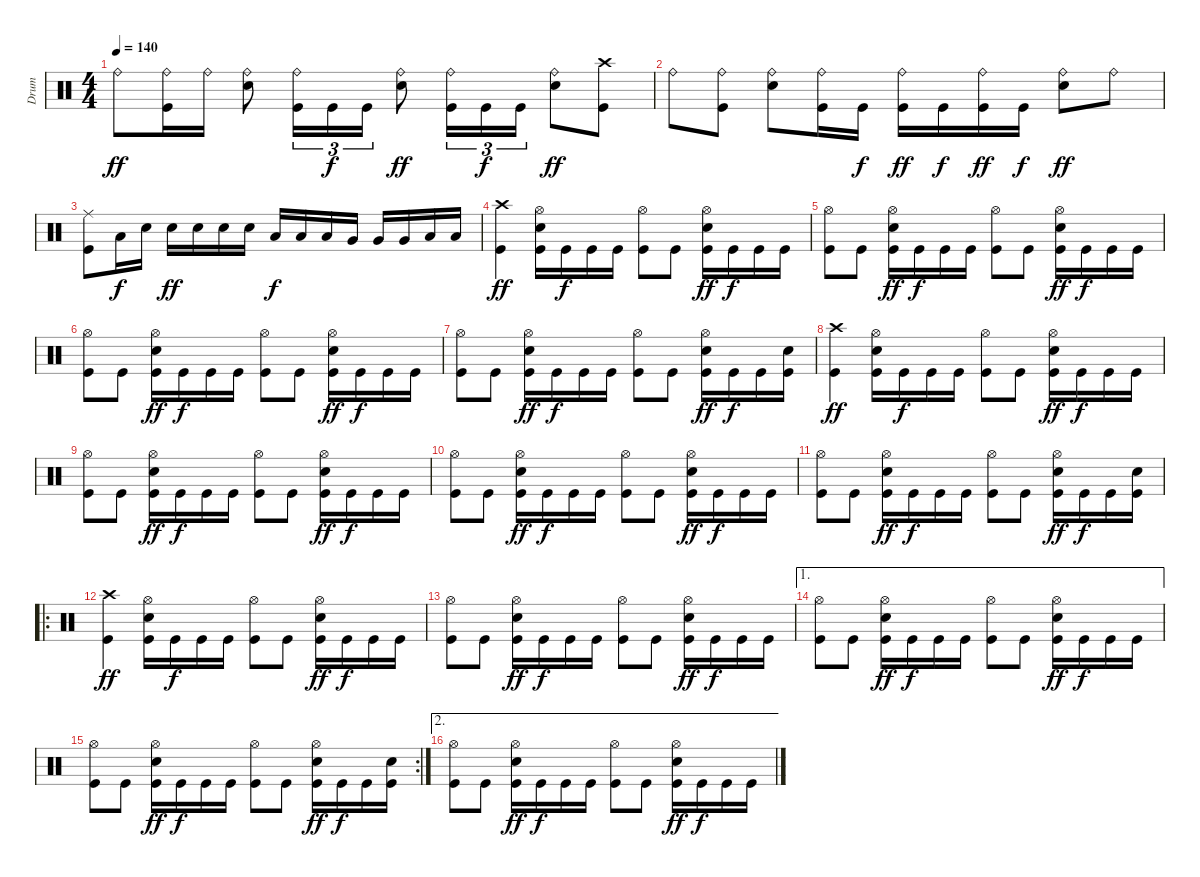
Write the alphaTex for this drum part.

\track ("Drum" "Drum") {instrument percussion}
\staff {score}
\articulation defaults
\ts (4 4)
\tempo 140
\clef neutral
\ks c "Ride (bell)".8{dy ff}
("Kick (hit)" "Ride (bell)").16 "Ride (bell)".16 ("Electric Snare (hit)" "Ride (bell)").8 ("Kick (hit)" "Ride (bell)").16{tu (3 2)} "Kick (hit)".16{tu (3 2) dy f} "Kick (hit)".16{tu (3 2)} ("Electric Snare (hit)" "Ride (bell)").8{dy ff} ("Kick (hit)" "Ride (bell)").16{tu (3 2)} "Kick (hit)".16{tu (3 2) dy f} "Kick (hit)".16{tu (3 2)} ("Electric Snare (hit)" "Ride (bell)").8{dy ff} ("Kick (hit)" "Crash high (hit)").8 |
"Ride (bell)".8 ("Kick (hit)" "Ride (bell)").8 ("Electric Snare (hit)" "Ride (bell)").8 ("Kick (hit)" "Ride (bell)").16 "Kick (hit)".16{dy f} ("Kick (hit)" "Ride (bell)").16{dy ff} "Kick (hit)".16{dy f} ("Kick (hit)" "Ride (bell)").16{dy ff} "Kick (hit)".16{dy f} ("Electric Snare (hit)" "Ride (bell)").8{dy ff} "Ride (bell)".8 |
("Kick (hit)" "Ride (middle)").8 "Low Tom (hit)".16{dy f} "Electric Snare (hit)".16 "Electric Snare (hit)".16{dy ff} "Electric Snare (hit)".16 "Electric Snare (hit)".16 "Electric Snare (hit)".16 "Low Tom (hit)".16{dy f} "Low Tom (hit)".16 "Low Tom (hit)".16 "Very Low Tom (hit)".16 "Very Low Tom (hit)".16 "Very Low Tom (hit)".16 "Low Floor Tom (hit)".16 "Low Floor Tom (hit)".16 |
("Kick (hit)" "Crash high (hit)").4{dy ff} ("Kick (hit)" "Electric Snare (hit)" "Hi-Hat (open)").16 "Kick (hit)".16{dy f} "Kick (hit)".16 "Kick (hit)".16 ("Kick (hit)" "Hi-Hat (open)").8 "Kick (hit)".8 ("Kick (hit)" "Electric Snare (hit)" "Hi-Hat (open)").16{dy ff} "Kick (hit)".16{dy f} "Kick (hit)".16 "Kick (hit)".16 |
("Kick (hit)" "Hi-Hat (open)").8 "Kick (hit)".8 ("Kick (hit)" "Electric Snare (hit)" "Hi-Hat (open)").16{dy ff} "Kick (hit)".16{dy f} "Kick (hit)".16 "Kick (hit)".16 ("Kick (hit)" "Hi-Hat (open)").8 "Kick (hit)".8 ("Kick (hit)" "Electric Snare (hit)" "Hi-Hat (open)").16{dy ff} "Kick (hit)".16{dy f} "Kick (hit)".16 "Kick (hit)".16 |
("Kick (hit)" "Hi-Hat (open)").8 "Kick (hit)".8 ("Kick (hit)" "Electric Snare (hit)" "Hi-Hat (open)").16{dy ff} "Kick (hit)".16{dy f} "Kick (hit)".16 "Kick (hit)".16 ("Kick (hit)" "Hi-Hat (open)").8 "Kick (hit)".8 ("Kick (hit)" "Electric Snare (hit)" "Hi-Hat (open)").16{dy ff} "Kick (hit)".16{dy f} "Kick (hit)".16 "Kick (hit)".16 |
("Kick (hit)" "Hi-Hat (open)").8 "Kick (hit)".8 ("Kick (hit)" "Electric Snare (hit)" "Hi-Hat (open)").16{dy ff} "Kick (hit)".16{dy f} "Kick (hit)".16 "Kick (hit)".16 ("Kick (hit)" "Hi-Hat (open)").8 "Kick (hit)".8 ("Kick (hit)" "Electric Snare (hit)" "Hi-Hat (open)").16{dy ff} "Kick (hit)".16{dy f} "Kick (hit)".16 ("Kick (hit)" "Electric Snare (hit)").16 |
("Kick (hit)" "Crash high (hit)").4{dy ff} ("Kick (hit)" "Electric Snare (hit)" "Hi-Hat (open)").16 "Kick (hit)".16{dy f} "Kick (hit)".16 "Kick (hit)".16 ("Kick (hit)" "Hi-Hat (open)").8 "Kick (hit)".8 ("Kick (hit)" "Electric Snare (hit)" "Hi-Hat (open)").16{dy ff} "Kick (hit)".16{dy f} "Kick (hit)".16 "Kick (hit)".16 |
("Kick (hit)" "Hi-Hat (open)").8 "Kick (hit)".8 ("Kick (hit)" "Electric Snare (hit)" "Hi-Hat (open)").16{dy ff} "Kick (hit)".16{dy f} "Kick (hit)".16 "Kick (hit)".16 ("Kick (hit)" "Hi-Hat (open)").8 "Kick (hit)".8 ("Kick (hit)" "Electric Snare (hit)" "Hi-Hat (open)").16{dy ff} "Kick (hit)".16{dy f} "Kick (hit)".16 "Kick (hit)".16 |
("Kick (hit)" "Hi-Hat (open)").8 "Kick (hit)".8 ("Kick (hit)" "Electric Snare (hit)" "Hi-Hat (open)").16{dy ff} "Kick (hit)".16{dy f} "Kick (hit)".16 "Kick (hit)".16 ("Kick (hit)" "Hi-Hat (open)").8 "Kick (hit)".8 ("Kick (hit)" "Electric Snare (hit)" "Hi-Hat (open)").16{dy ff} "Kick (hit)".16{dy f} "Kick (hit)".16 "Kick (hit)".16 |
("Kick (hit)" "Hi-Hat (open)").8 "Kick (hit)".8 ("Kick (hit)" "Electric Snare (hit)" "Hi-Hat (open)").16{dy ff} "Kick (hit)".16{dy f} "Kick (hit)".16 "Kick (hit)".16 ("Kick (hit)" "Hi-Hat (open)").8 "Kick (hit)".8 ("Kick (hit)" "Electric Snare (hit)" "Hi-Hat (open)").16{dy ff} "Kick (hit)".16{dy f} "Kick (hit)".16 ("Kick (hit)" "Electric Snare (hit)").16 |
\ro
("Kick (hit)" "Crash high (hit)").4{dy ff} ("Kick (hit)" "Electric Snare (hit)" "Hi-Hat (open)").16 "Kick (hit)".16{dy f} "Kick (hit)".16 "Kick (hit)".16 ("Kick (hit)" "Hi-Hat (open)").8 "Kick (hit)".8 ("Kick (hit)" "Electric Snare (hit)" "Hi-Hat (open)").16{dy ff} "Kick (hit)".16{dy f} "Kick (hit)".16 "Kick (hit)".16 |
("Kick (hit)" "Hi-Hat (open)").8 "Kick (hit)".8 ("Kick (hit)" "Electric Snare (hit)" "Hi-Hat (open)").16{dy ff} "Kick (hit)".16{dy f} "Kick (hit)".16 "Kick (hit)".16 ("Kick (hit)" "Hi-Hat (open)").8 "Kick (hit)".8 ("Kick (hit)" "Electric Snare (hit)" "Hi-Hat (open)").16{dy ff} "Kick (hit)".16{dy f} "Kick (hit)".16 "Kick (hit)".16 |
\ae 1
("Kick (hit)" "Hi-Hat (open)").8 "Kick (hit)".8 ("Kick (hit)" "Electric Snare (hit)" "Hi-Hat (open)").16{dy ff} "Kick (hit)".16{dy f} "Kick (hit)".16 "Kick (hit)".16 ("Kick (hit)" "Hi-Hat (open)").8 "Kick (hit)".8 ("Kick (hit)" "Electric Snare (hit)" "Hi-Hat (open)").16{dy ff} "Kick (hit)".16{dy f} "Kick (hit)".16 "Kick (hit)".16 |
\rc 2
("Kick (hit)" "Hi-Hat (open)").8 "Kick (hit)".8 ("Kick (hit)" "Electric Snare (hit)" "Hi-Hat (open)").16{dy ff} "Kick (hit)".16{dy f} "Kick (hit)".16 "Kick (hit)".16 ("Kick (hit)" "Hi-Hat (open)").8 "Kick (hit)".8 ("Kick (hit)" "Electric Snare (hit)" "Hi-Hat (open)").16{dy ff} "Kick (hit)".16{dy f} "Kick (hit)".16 ("Kick (hit)" "Electric Snare (hit)").16 |
\ae 2
("Kick (hit)" "Hi-Hat (open)").8 "Kick (hit)".8 ("Kick (hit)" "Electric Snare (hit)" "Hi-Hat (open)").16{dy ff} "Kick (hit)".16{dy f} "Kick (hit)".16 "Kick (hit)".16 ("Kick (hit)" "Hi-Hat (open)").8 "Kick (hit)".8 ("Kick (hit)" "Electric Snare (hit)" "Hi-Hat (open)").16{dy ff} "Kick (hit)".16{dy f} "Kick (hit)".16 "Kick (hit)".16
